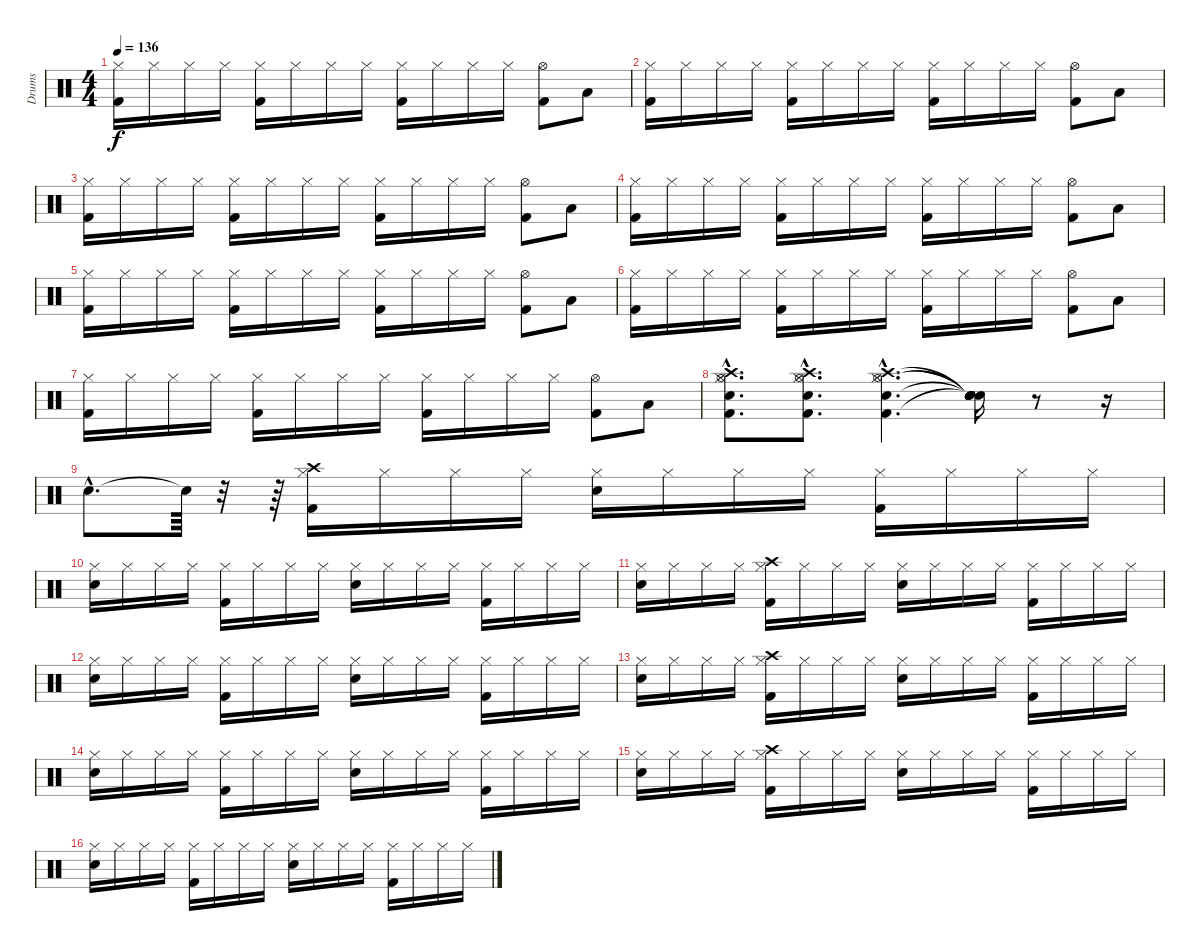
\track ("Drums" "Drums") {instrument percussion}
\staff {score}
\articulation defaults
\ts (4 4)
\tempo 136
\clef neutral
\ks c
("Kick (hit) 2" "Hi-Hat (closed)").16{dy f} "Hi-Hat (closed)".16 "Hi-Hat (closed)".16 "Hi-Hat (closed)".16 ("Kick (hit) 2" "Hi-Hat (closed)").16 "Hi-Hat (closed)".16 "Hi-Hat (closed)".16 "Hi-Hat (closed)".16 ("Kick (hit) 2" "Hi-Hat (closed)").16 "Hi-Hat (closed)".16 "Hi-Hat (closed)".16 "Hi-Hat (closed)".16 ("Kick (hit) 2" "Hi-Hat (open)").8 "Low Tom (hit)".8 |
("Kick (hit) 2" "Hi-Hat (closed)").16 "Hi-Hat (closed)".16 "Hi-Hat (closed)".16 "Hi-Hat (closed)".16 ("Kick (hit) 2" "Hi-Hat (closed)").16 "Hi-Hat (closed)".16 "Hi-Hat (closed)".16 "Hi-Hat (closed)".16 ("Kick (hit) 2" "Hi-Hat (closed)").16 "Hi-Hat (closed)".16 "Hi-Hat (closed)".16 "Hi-Hat (closed)".16 ("Kick (hit) 2" "Hi-Hat (open)").8 "Low Tom (hit)".8 |
("Kick (hit) 2" "Hi-Hat (closed)").16 "Hi-Hat (closed)".16 "Hi-Hat (closed)".16 "Hi-Hat (closed)".16 ("Kick (hit) 2" "Hi-Hat (closed)").16 "Hi-Hat (closed)".16 "Hi-Hat (closed)".16 "Hi-Hat (closed)".16 ("Kick (hit) 2" "Hi-Hat (closed)").16 "Hi-Hat (closed)".16 "Hi-Hat (closed)".16 "Hi-Hat (closed)".16 ("Kick (hit) 2" "Hi-Hat (open)").8 "Low Tom (hit)".8 |
("Kick (hit) 2" "Hi-Hat (closed)").16 "Hi-Hat (closed)".16 "Hi-Hat (closed)".16 "Hi-Hat (closed)".16 ("Kick (hit) 2" "Hi-Hat (closed)").16 "Hi-Hat (closed)".16 "Hi-Hat (closed)".16 "Hi-Hat (closed)".16 ("Kick (hit) 2" "Hi-Hat (closed)").16 "Hi-Hat (closed)".16 "Hi-Hat (closed)".16 "Hi-Hat (closed)".16 ("Kick (hit) 2" "Hi-Hat (open)").8 "Low Tom (hit)".8 |
("Kick (hit) 2" "Hi-Hat (closed)").16 "Hi-Hat (closed)".16 "Hi-Hat (closed)".16 "Hi-Hat (closed)".16 ("Kick (hit) 2" "Hi-Hat (closed)").16 "Hi-Hat (closed)".16 "Hi-Hat (closed)".16 "Hi-Hat (closed)".16 ("Kick (hit) 2" "Hi-Hat (closed)").16 "Hi-Hat (closed)".16 "Hi-Hat (closed)".16 "Hi-Hat (closed)".16 ("Kick (hit) 2" "Hi-Hat (open)").8 "Low Tom (hit)".8 |
("Kick (hit) 2" "Hi-Hat (closed)").16 "Hi-Hat (closed)".16 "Hi-Hat (closed)".16 "Hi-Hat (closed)".16 ("Kick (hit) 2" "Hi-Hat (closed)").16 "Hi-Hat (closed)".16 "Hi-Hat (closed)".16 "Hi-Hat (closed)".16 ("Kick (hit) 2" "Hi-Hat (closed)").16 "Hi-Hat (closed)".16 "Hi-Hat (closed)".16 "Hi-Hat (closed)".16 ("Kick (hit) 2" "Hi-Hat (open)").8 "Low Tom (hit)".8 |
("Kick (hit) 2" "Hi-Hat (closed)").16 "Hi-Hat (closed)".16 "Hi-Hat (closed)".16 "Hi-Hat (closed)".16 ("Kick (hit) 2" "Hi-Hat (closed)").16 "Hi-Hat (closed)".16 "Hi-Hat (closed)".16 "Hi-Hat (closed)".16 ("Kick (hit) 2" "Hi-Hat (closed)").16 "Hi-Hat (closed)".16 "Hi-Hat (closed)".16 "Hi-Hat (closed)".16 ("Kick (hit) 2" "Hi-Hat (open)").8 "Low Tom (hit)".8 |
("Kick (hit) 2"{hac} "Snare (hit) 2"{hac} "Hi-Hat (closed)"{hac} "Hi-Hat (open)"{hac} "Crash high (hit)"{hac}).8{d} ("Kick (hit) 2"{hac} "Snare (hit) 2"{hac} "Hi-Hat (closed)"{hac} "Hi-Hat (open)"{hac} "Crash high (hit)"{hac}).8{d} ("Kick (hit) 2"{hac} "Snare (hit) 2"{hac} "Hi-Hat (closed)"{hac} "Hi-Hat (open)"{hac} "Crash high (hit)"{hac}).4{d} ("Snare (hit)"{t} "Snare (hit)"{t} "Snare (hit)"{t} "Snare (hit)"{t} "Snare (hit)"{t}).16 r.8 r.16 |
"Snare (hit) 2"{hac}.8{d} "Snare (hit)"{t}.64 r.32 r.64 ("Kick (hit) 2" "Hi-Hat (closed)" "Crash high (hit)").16 "Hi-Hat (closed)".16 "Hi-Hat (closed)".16 "Hi-Hat (closed)".16 ("Snare (hit) 2" "Hi-Hat (closed)").16 "Hi-Hat (closed)".16 "Hi-Hat (closed)".16 "Hi-Hat (closed)".16 ("Kick (hit) 2" "Hi-Hat (closed)").16 "Hi-Hat (closed)".16 "Hi-Hat (closed)".16 "Hi-Hat (closed)".16 |
("Snare (hit) 2" "Hi-Hat (closed)").16 "Hi-Hat (closed)".16 "Hi-Hat (closed)".16 "Hi-Hat (closed)".16 ("Kick (hit) 2" "Hi-Hat (closed)").16 "Hi-Hat (closed)".16 "Hi-Hat (closed)".16 "Hi-Hat (closed)".16 ("Snare (hit) 2" "Hi-Hat (closed)").16 "Hi-Hat (closed)".16 "Hi-Hat (closed)".16 "Hi-Hat (closed)".16 ("Kick (hit) 2" "Hi-Hat (closed)").16 "Hi-Hat (closed)".16 "Hi-Hat (closed)".16 "Hi-Hat (closed)".16 |
("Snare (hit) 2" "Hi-Hat (closed)").16 "Hi-Hat (closed)".16 "Hi-Hat (closed)".16 "Hi-Hat (closed)".16 ("Kick (hit) 2" "Hi-Hat (closed)" "Crash high (hit)").16 "Hi-Hat (closed)".16 "Hi-Hat (closed)".16 "Hi-Hat (closed)".16 ("Snare (hit) 2" "Hi-Hat (closed)").16 "Hi-Hat (closed)".16 "Hi-Hat (closed)".16 "Hi-Hat (closed)".16 ("Kick (hit) 2" "Hi-Hat (closed)").16 "Hi-Hat (closed)".16 "Hi-Hat (closed)".16 "Hi-Hat (closed)".16 |
("Snare (hit) 2" "Hi-Hat (closed)").16 "Hi-Hat (closed)".16 "Hi-Hat (closed)".16 "Hi-Hat (closed)".16 ("Kick (hit) 2" "Hi-Hat (closed)").16 "Hi-Hat (closed)".16 "Hi-Hat (closed)".16 "Hi-Hat (closed)".16 ("Snare (hit) 2" "Hi-Hat (closed)").16 "Hi-Hat (closed)".16 "Hi-Hat (closed)".16 "Hi-Hat (closed)".16 ("Kick (hit) 2" "Hi-Hat (closed)").16 "Hi-Hat (closed)".16 "Hi-Hat (closed)".16 "Hi-Hat (closed)".16 |
("Snare (hit) 2" "Hi-Hat (closed)").16 "Hi-Hat (closed)".16 "Hi-Hat (closed)".16 "Hi-Hat (closed)".16 ("Kick (hit) 2" "Hi-Hat (closed)" "Crash high (hit)").16 "Hi-Hat (closed)".16 "Hi-Hat (closed)".16 "Hi-Hat (closed)".16 ("Snare (hit) 2" "Hi-Hat (closed)").16 "Hi-Hat (closed)".16 "Hi-Hat (closed)".16 "Hi-Hat (closed)".16 ("Kick (hit) 2" "Hi-Hat (closed)").16 "Hi-Hat (closed)".16 "Hi-Hat (closed)".16 "Hi-Hat (closed)".16 |
("Snare (hit) 2" "Hi-Hat (closed)").16 "Hi-Hat (closed)".16 "Hi-Hat (closed)".16 "Hi-Hat (closed)".16 ("Kick (hit) 2" "Hi-Hat (closed)").16 "Hi-Hat (closed)".16 "Hi-Hat (closed)".16 "Hi-Hat (closed)".16 ("Snare (hit) 2" "Hi-Hat (closed)").16 "Hi-Hat (closed)".16 "Hi-Hat (closed)".16 "Hi-Hat (closed)".16 ("Kick (hit) 2" "Hi-Hat (closed)").16 "Hi-Hat (closed)".16 "Hi-Hat (closed)".16 "Hi-Hat (closed)".16 |
("Snare (hit) 2" "Hi-Hat (closed)").16 "Hi-Hat (closed)".16 "Hi-Hat (closed)".16 "Hi-Hat (closed)".16 ("Kick (hit) 2" "Hi-Hat (closed)" "Crash high (hit)").16 "Hi-Hat (closed)".16 "Hi-Hat (closed)".16 "Hi-Hat (closed)".16 ("Snare (hit) 2" "Hi-Hat (closed)").16 "Hi-Hat (closed)".16 "Hi-Hat (closed)".16 "Hi-Hat (closed)".16 ("Kick (hit) 2" "Hi-Hat (closed)").16 "Hi-Hat (closed)".16 "Hi-Hat (closed)".16 "Hi-Hat (closed)".16 |
("Snare (hit) 2" "Hi-Hat (closed)").16 "Hi-Hat (closed)".16 "Hi-Hat (closed)".16 "Hi-Hat (closed)".16 ("Kick (hit) 2" "Hi-Hat (closed)").16 "Hi-Hat (closed)".16 "Hi-Hat (closed)".16 "Hi-Hat (closed)".16 ("Snare (hit) 2" "Hi-Hat (closed)").16 "Hi-Hat (closed)".16 "Hi-Hat (closed)".16 "Hi-Hat (closed)".16 ("Kick (hit) 2" "Hi-Hat (closed)").16 "Hi-Hat (closed)".16 "Hi-Hat (closed)".16 "Hi-Hat (closed)".16
